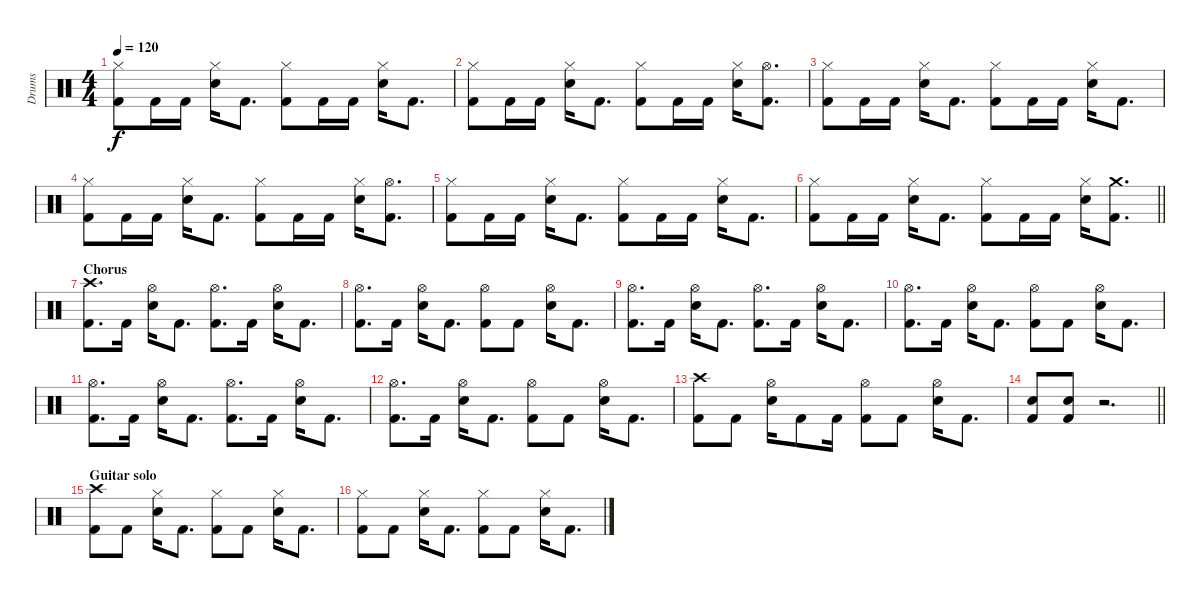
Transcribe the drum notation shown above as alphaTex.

\track ("Drums" "Drums") {instrument percussion}
\staff {score}
\articulation defaults
\ts (4 4)
\tempo 120
\clef neutral
\ks c
("Hi-Hat (closed)" "Kick (hit) 2").8{dy f} "Kick (hit) 2".16 "Kick (hit) 2".16 ("Hi-Hat (closed)" "Snare (hit) 2").16 "Kick (hit) 2".8{d} ("Hi-Hat (closed)" "Kick (hit) 2").8 "Kick (hit) 2".16 "Kick (hit) 2".16 ("Hi-Hat (closed)" "Snare (hit) 2").16 "Kick (hit) 2".8{d} |
("Hi-Hat (closed)" "Kick (hit) 2").8 "Kick (hit) 2".16 "Kick (hit) 2".16 ("Hi-Hat (closed)" "Snare (hit) 2").16 "Kick (hit) 2".8{d} ("Hi-Hat (closed)" "Kick (hit) 2").8 "Kick (hit) 2".16 "Kick (hit) 2".16 ("Hi-Hat (closed)" "Snare (hit) 2").16 ("Hi-Hat (open)" "Kick (hit) 2").8{d} |
("Hi-Hat (closed)" "Kick (hit) 2").8 "Kick (hit) 2".16 "Kick (hit) 2".16 ("Hi-Hat (closed)" "Snare (hit) 2").16 "Kick (hit) 2".8{d} ("Hi-Hat (closed)" "Kick (hit) 2").8 "Kick (hit) 2".16 "Kick (hit) 2".16 ("Hi-Hat (closed)" "Snare (hit) 2").16 "Kick (hit) 2".8{d} |
("Hi-Hat (closed)" "Kick (hit) 2").8 "Kick (hit) 2".16 "Kick (hit) 2".16 ("Hi-Hat (closed)" "Snare (hit) 2").16 "Kick (hit) 2".8{d} ("Hi-Hat (closed)" "Kick (hit) 2").8 "Kick (hit) 2".16 "Kick (hit) 2".16 ("Hi-Hat (closed)" "Snare (hit) 2").16 ("Hi-Hat (open)" "Kick (hit) 2").8{d} |
("Hi-Hat (closed)" "Kick (hit) 2").8 "Kick (hit) 2".16 "Kick (hit) 2".16 ("Hi-Hat (closed)" "Snare (hit) 2").16 "Kick (hit) 2".8{d} ("Hi-Hat (closed)" "Kick (hit) 2").8 "Kick (hit) 2".16 "Kick (hit) 2".16 ("Hi-Hat (closed)" "Snare (hit) 2").16 "Kick (hit) 2".8{d} |
\barLineRight lightlight
("Hi-Hat (closed)" "Kick (hit) 2").8 "Kick (hit) 2".16 "Kick (hit) 2".16 ("Hi-Hat (closed)" "Snare (hit) 2").16 "Kick (hit) 2".8{d} ("Hi-Hat (closed)" "Kick (hit) 2").8 "Kick (hit) 2".16 "Kick (hit) 2".16 ("Hi-Hat (closed)" "Snare (hit) 2").16 ("Crash medium (hit)" "Kick (hit) 2").8{d} |
\section ("" "Chorus")
("Crash high (hit)" "Kick (hit) 2").8{d} "Kick (hit) 2".16 ("Hi-Hat (open)" "Electric Snare (hit)").16 "Kick (hit) 2".8{d} ("Hi-Hat (open)" "Kick (hit) 2").8{d} "Kick (hit) 2".16 ("Hi-Hat (open)" "Electric Snare (hit)").16 "Kick (hit) 2".8{d} |
("Hi-Hat (open)" "Kick (hit) 2").8{d} "Kick (hit) 2".16 ("Hi-Hat (open)" "Electric Snare (hit)").16 "Kick (hit) 2".8{d} ("Hi-Hat (open)" "Kick (hit) 2").8 "Kick (hit) 2".8 ("Hi-Hat (open)" "Electric Snare (hit)").16 "Kick (hit) 2".8{d} |
("Hi-Hat (open)" "Kick (hit) 2").8{d} "Kick (hit) 2".16 ("Hi-Hat (open)" "Electric Snare (hit)").16 "Kick (hit) 2".8{d} ("Hi-Hat (open)" "Kick (hit) 2").8{d} "Kick (hit) 2".16 ("Hi-Hat (open)" "Electric Snare (hit)").16 "Kick (hit) 2".8{d} |
("Hi-Hat (open)" "Kick (hit) 2").8{d} "Kick (hit) 2".16 ("Hi-Hat (open)" "Electric Snare (hit)").16 "Kick (hit) 2".8{d} ("Hi-Hat (open)" "Kick (hit) 2").8 "Kick (hit) 2".8 ("Hi-Hat (open)" "Electric Snare (hit)").16 "Kick (hit) 2".8{d} |
("Hi-Hat (open)" "Kick (hit) 2").8{d} "Kick (hit) 2".16 ("Hi-Hat (open)" "Electric Snare (hit)").16 "Kick (hit) 2".8{d} ("Hi-Hat (open)" "Kick (hit) 2").8{d} "Kick (hit) 2".16 ("Hi-Hat (open)" "Electric Snare (hit)").16 "Kick (hit) 2".8{d} |
("Hi-Hat (open)" "Kick (hit) 2").8{d} "Kick (hit) 2".16 ("Hi-Hat (open)" "Electric Snare (hit)").16 "Kick (hit) 2".8{d} ("Hi-Hat (open)" "Kick (hit) 2").8 "Kick (hit) 2".8 ("Hi-Hat (open)" "Electric Snare (hit)").16 "Kick (hit) 2".8{d} |
("Crash high (hit)" "Kick (hit) 2").8 "Kick (hit) 2".8 ("Hi-Hat (open)" "Electric Snare (hit)").16 "Kick (hit) 2".8 "Kick (hit) 2".16 ("Hi-Hat (open)" "Kick (hit) 2").8 "Kick (hit) 2".8 ("Hi-Hat (open)" "Electric Snare (hit)").16 "Kick (hit) 2".8{d} |
\barLineRight lightlight
("Snare (hit) 2" "Kick (hit) 2").8 ("Snare (hit) 2" "Kick (hit) 2").8 r.2{d} |
\section ("" "Guitar solo")
("Crash high (hit)" "Kick (hit) 2").8 "Kick (hit) 2".8 ("Hi-Hat (closed)" "Snare (hit) 2").16 "Kick (hit) 2".8{d} ("Hi-Hat (closed)" "Kick (hit) 2").8 "Kick (hit) 2".8 ("Hi-Hat (closed)" "Snare (hit) 2").16 "Kick (hit) 2".8{d} |
("Hi-Hat (closed)" "Kick (hit) 2").8 "Kick (hit) 2".8 ("Hi-Hat (closed)" "Snare (hit) 2").16 "Kick (hit) 2".8{d} ("Hi-Hat (closed)" "Kick (hit) 2").8 "Kick (hit) 2".8 ("Hi-Hat (closed)" "Snare (hit) 2").16 "Kick (hit) 2".8{d}
